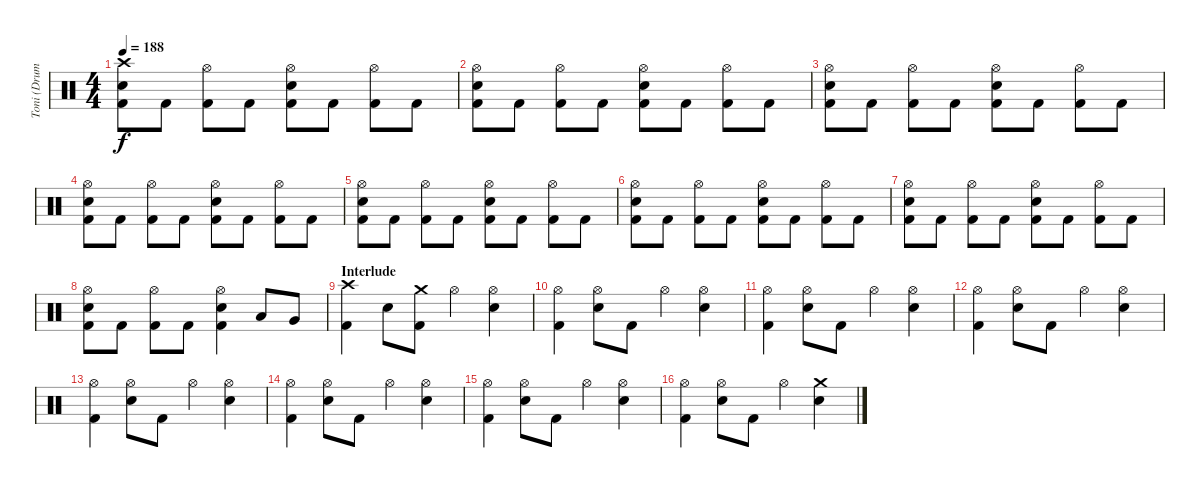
\track ("Toni (Drums)" "Toni (Drum") {instrument percussion}
\staff {score}
\articulation defaults
\ts (4 4)
\tempo 188
\clef neutral
\ks c
("Crash high (hit)" "Electric Snare (hit)" "Kick (hit) 2").8{dy f} "Kick (hit) 2".8 ("Hi-Hat (open)" "Kick (hit) 2").8 "Kick (hit) 2".8 ("Hi-Hat (open)" "Electric Snare (hit)" "Kick (hit) 2").8 "Kick (hit) 2".8 ("Hi-Hat (open)" "Kick (hit) 2").8 "Kick (hit) 2".8 |
("Hi-Hat (open)" "Electric Snare (hit)" "Kick (hit) 2").8 "Kick (hit) 2".8 ("Hi-Hat (open)" "Kick (hit) 2").8 "Kick (hit) 2".8 ("Hi-Hat (open)" "Electric Snare (hit)" "Kick (hit) 2").8 "Kick (hit) 2".8 ("Hi-Hat (open)" "Kick (hit) 2").8 "Kick (hit) 2".8 |
("Hi-Hat (open)" "Electric Snare (hit)" "Kick (hit) 2").8 "Kick (hit) 2".8 ("Hi-Hat (open)" "Kick (hit) 2").8 "Kick (hit) 2".8 ("Hi-Hat (open)" "Electric Snare (hit)" "Kick (hit) 2").8 "Kick (hit) 2".8 ("Hi-Hat (open)" "Kick (hit) 2").8 "Kick (hit) 2".8 |
("Hi-Hat (open)" "Electric Snare (hit)" "Kick (hit) 2").8 "Kick (hit) 2".8 ("Hi-Hat (open)" "Kick (hit) 2").8 "Kick (hit) 2".8 ("Hi-Hat (open)" "Electric Snare (hit)" "Kick (hit) 2").8 "Kick (hit) 2".8 ("Hi-Hat (open)" "Kick (hit) 2").8 "Kick (hit) 2".8 |
("Hi-Hat (open)" "Electric Snare (hit)" "Kick (hit) 2").8 "Kick (hit) 2".8 ("Hi-Hat (open)" "Kick (hit) 2").8 "Kick (hit) 2".8 ("Hi-Hat (open)" "Electric Snare (hit)" "Kick (hit) 2").8 "Kick (hit) 2".8 ("Hi-Hat (open)" "Kick (hit) 2").8 "Kick (hit) 2".8 |
("Hi-Hat (open)" "Electric Snare (hit)" "Kick (hit) 2").8 "Kick (hit) 2".8 ("Hi-Hat (open)" "Kick (hit) 2").8 "Kick (hit) 2".8 ("Hi-Hat (open)" "Electric Snare (hit)" "Kick (hit) 2").8 "Kick (hit) 2".8 ("Hi-Hat (open)" "Kick (hit) 2").8 "Kick (hit) 2".8 |
("Hi-Hat (open)" "Electric Snare (hit)" "Kick (hit) 2").8 "Kick (hit) 2".8 ("Hi-Hat (open)" "Kick (hit) 2").8 "Kick (hit) 2".8 ("Hi-Hat (open)" "Electric Snare (hit)" "Kick (hit) 2").8 "Kick (hit) 2".8 ("Hi-Hat (open)" "Kick (hit) 2").8 "Kick (hit) 2".8 |
("Hi-Hat (open)" "Electric Snare (hit)" "Kick (hit) 2").8 "Kick (hit) 2".8 ("Hi-Hat (open)" "Kick (hit) 2").8 "Kick (hit) 2".8 ("Hi-Hat (open)" "Electric Snare (hit)" "Kick (hit) 2").4 "Low Tom (hit)".8 "Very Low Tom (hit)".8 |
\section ("" "Interlude")
("Crash high (hit)" "Kick (hit) 2").4 "Electric Snare (hit)".8 ("Crash medium (hit)" "Kick (hit) 2").8 "Hi-Hat (open)".4 ("Hi-Hat (open)" "Electric Snare (hit)").4 |
("Hi-Hat (open)" "Kick (hit) 2").4 ("Hi-Hat (open)" "Electric Snare (hit)").8 "Kick (hit) 2".8 "Hi-Hat (open)".4 ("Hi-Hat (open)" "Electric Snare (hit)").4 |
("Hi-Hat (open)" "Kick (hit) 2").4 ("Hi-Hat (open)" "Electric Snare (hit)").8 "Kick (hit) 2".8 "Hi-Hat (open)".4 ("Hi-Hat (open)" "Electric Snare (hit)").4 |
("Hi-Hat (open)" "Kick (hit) 2").4 ("Hi-Hat (open)" "Electric Snare (hit)").8 "Kick (hit) 2".8 "Hi-Hat (open)".4 ("Hi-Hat (open)" "Electric Snare (hit)").4 |
("Hi-Hat (open)" "Kick (hit) 2").4 ("Hi-Hat (open)" "Electric Snare (hit)").8 "Kick (hit) 2".8 "Hi-Hat (open)".4 ("Hi-Hat (open)" "Electric Snare (hit)").4 |
("Hi-Hat (open)" "Kick (hit) 2").4 ("Hi-Hat (open)" "Electric Snare (hit)").8 "Kick (hit) 2".8 "Hi-Hat (open)".4 ("Hi-Hat (open)" "Electric Snare (hit)").4 |
("Hi-Hat (open)" "Kick (hit) 2").4 ("Hi-Hat (open)" "Electric Snare (hit)").8 "Kick (hit) 2".8 "Hi-Hat (open)".4 ("Hi-Hat (open)" "Electric Snare (hit)").4 |
("Hi-Hat (open)" "Kick (hit) 2").4 ("Hi-Hat (open)" "Electric Snare (hit)").8 "Kick (hit) 2".8 "Hi-Hat (open)".4 ("Crash medium (hit)" "Electric Snare (hit)").4
